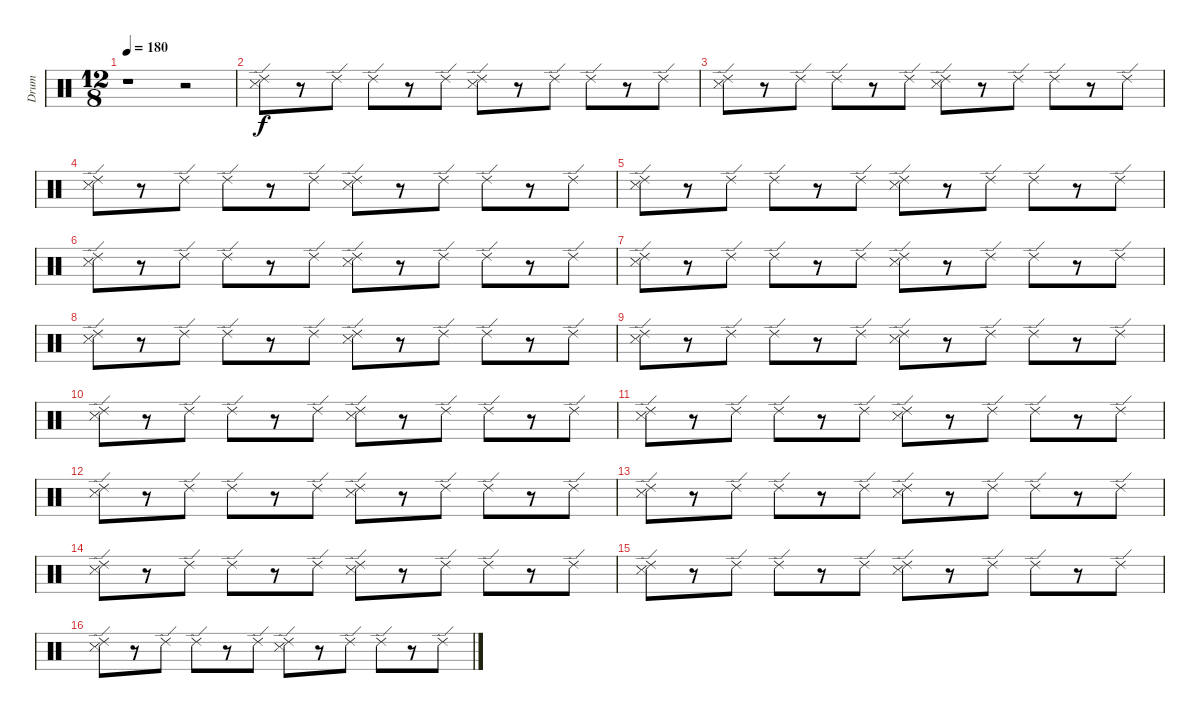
\track ("Drum" "Drum") {instrument percussion}
\staff {score}
\articulation defaults
\ts (12 8)
\tempo 180
\clef neutral
\ks c
r.1{dy f} r.2 |
("Ride (edge) 2" "Snare (side stick) 3").8 r.8 "Ride (edge) 2".8 "Ride (edge) 2".8 r.8 "Ride (edge) 2".8 ("Ride (edge) 2" "Snare (side stick) 3").8 r.8 "Ride (edge) 2".8 "Ride (edge) 2".8 r.8 "Ride (edge) 2".8 |
("Ride (edge) 2" "Snare (side stick) 3").8 r.8 "Ride (edge) 2".8 "Ride (edge) 2".8 r.8 "Ride (edge) 2".8 ("Ride (edge) 2" "Snare (side stick) 3").8 r.8 "Ride (edge) 2".8 "Ride (edge) 2".8 r.8 "Ride (edge) 2".8 |
("Ride (edge) 2" "Snare (side stick) 3").8 r.8 "Ride (edge) 2".8 "Ride (edge) 2".8 r.8 "Ride (edge) 2".8 ("Ride (edge) 2" "Snare (side stick) 3").8 r.8 "Ride (edge) 2".8 "Ride (edge) 2".8 r.8 "Ride (edge) 2".8 |
("Ride (edge) 2" "Snare (side stick) 3").8 r.8 "Ride (edge) 2".8 "Ride (edge) 2".8 r.8 "Ride (edge) 2".8 ("Ride (edge) 2" "Snare (side stick) 3").8 r.8 "Ride (edge) 2".8 "Ride (edge) 2".8 r.8 "Ride (edge) 2".8 |
("Ride (edge) 2" "Snare (side stick) 3").8 r.8 "Ride (edge) 2".8 "Ride (edge) 2".8 r.8 "Ride (edge) 2".8 ("Ride (edge) 2" "Snare (side stick) 3").8 r.8 "Ride (edge) 2".8 "Ride (edge) 2".8 r.8 "Ride (edge) 2".8 |
("Ride (edge) 2" "Snare (side stick) 3").8 r.8 "Ride (edge) 2".8 "Ride (edge) 2".8 r.8 "Ride (edge) 2".8 ("Ride (edge) 2" "Snare (side stick) 3").8 r.8 "Ride (edge) 2".8 "Ride (edge) 2".8 r.8 "Ride (edge) 2".8 |
("Ride (edge) 2" "Snare (side stick) 3").8 r.8 "Ride (edge) 2".8 "Ride (edge) 2".8 r.8 "Ride (edge) 2".8 ("Ride (edge) 2" "Snare (side stick) 3").8 r.8 "Ride (edge) 2".8 "Ride (edge) 2".8 r.8 "Ride (edge) 2".8 |
("Ride (edge) 2" "Snare (side stick) 3").8 r.8 "Ride (edge) 2".8 "Ride (edge) 2".8 r.8 "Ride (edge) 2".8 ("Ride (edge) 2" "Snare (side stick) 3").8 r.8 "Ride (edge) 2".8 "Ride (edge) 2".8 r.8 "Ride (edge) 2".8 |
("Ride (edge) 2" "Snare (side stick) 3").8 r.8 "Ride (edge) 2".8 "Ride (edge) 2".8 r.8 "Ride (edge) 2".8 ("Ride (edge) 2" "Snare (side stick) 3").8 r.8 "Ride (edge) 2".8 "Ride (edge) 2".8 r.8 "Ride (edge) 2".8 |
("Ride (edge) 2" "Snare (side stick) 3").8 r.8 "Ride (edge) 2".8 "Ride (edge) 2".8 r.8 "Ride (edge) 2".8 ("Ride (edge) 2" "Snare (side stick) 3").8 r.8 "Ride (edge) 2".8 "Ride (edge) 2".8 r.8 "Ride (edge) 2".8 |
("Ride (edge) 2" "Snare (side stick) 3").8 r.8 "Ride (edge) 2".8 "Ride (edge) 2".8 r.8 "Ride (edge) 2".8 ("Ride (edge) 2" "Snare (side stick) 3").8 r.8 "Ride (edge) 2".8 "Ride (edge) 2".8 r.8 "Ride (edge) 2".8 |
("Ride (edge) 2" "Snare (side stick) 3").8 r.8 "Ride (edge) 2".8 "Ride (edge) 2".8 r.8 "Ride (edge) 2".8 ("Ride (edge) 2" "Snare (side stick) 3").8 r.8 "Ride (edge) 2".8 "Ride (edge) 2".8 r.8 "Ride (edge) 2".8 |
("Ride (edge) 2" "Snare (side stick) 3").8 r.8 "Ride (edge) 2".8 "Ride (edge) 2".8 r.8 "Ride (edge) 2".8 ("Ride (edge) 2" "Snare (side stick) 3").8 r.8 "Ride (edge) 2".8 "Ride (edge) 2".8 r.8 "Ride (edge) 2".8 |
("Ride (edge) 2" "Snare (side stick) 3").8 r.8 "Ride (edge) 2".8 "Ride (edge) 2".8 r.8 "Ride (edge) 2".8 ("Ride (edge) 2" "Snare (side stick) 3").8 r.8 "Ride (edge) 2".8 "Ride (edge) 2".8 r.8 "Ride (edge) 2".8 |
("Ride (edge) 2" "Snare (side stick) 3").8 r.8 "Ride (edge) 2".8 "Ride (edge) 2".8 r.8 "Ride (edge) 2".8 ("Ride (edge) 2" "Snare (side stick) 3").8 r.8 "Ride (edge) 2".8 "Ride (edge) 2".8 r.8 "Ride (edge) 2".8
